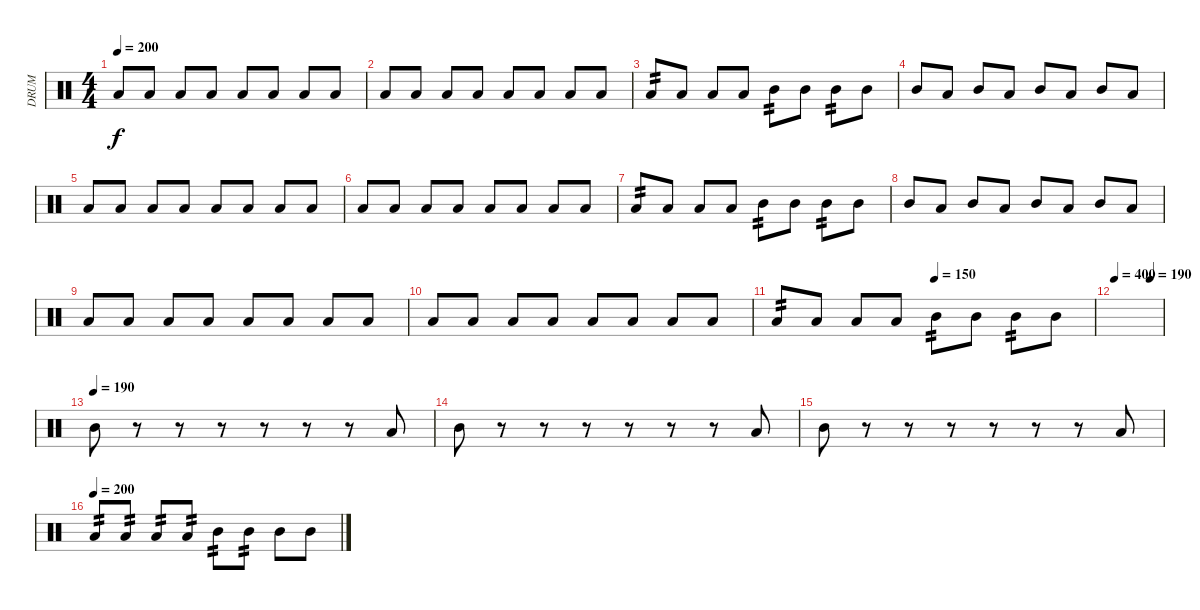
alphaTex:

\track ("DRUM" "DRUM") {instrument percussion}
\staff {score}
\articulation defaults
\ts (4 4)
\tempo 200
\clef neutral
\ks c "Low Tom (hit)".8{dy f} "Low Floor Tom (hit)".8 "Low Tom (hit)".8 "Low Floor Tom (hit)".8 "Low Tom (hit)".8 "Low Floor Tom (hit)".8 "Low Tom (hit)".8 "Low Floor Tom (hit)".8
|
"Low Tom (hit)".8 "Low Tom (hit)".8 "Low Tom (hit)".8 "Low Tom (hit)".8 "Low Tom (hit)".8 "Low Tom (hit)".8 "Low Tom (hit)".8 "Low Tom (hit)".8 |
"Low Tom (hit)".8{tp 2} "Low Tom (hit)".8 "Low Tom (hit)".8 "Low Tom (hit)".8 "Mid Tom (hit)".8{tp 2} "Mid Tom (hit)".8 "Mid Tom (hit)".8{tp 2} "Mid Tom (hit)".8 |
"Mid Tom (hit)".8 "Low Tom (hit)".8 "Mid Tom (hit)".8 "Low Tom (hit)".8 "Mid Tom (hit)".8 "Low Tom (hit)".8 "Mid Tom (hit)".8 "Low Tom (hit)".8 |
"Low Tom (hit)".8 "Low Floor Tom (hit)".8 "Low Tom (hit)".8 "Low Floor Tom (hit)".8 "Low Tom (hit)".8 "Low Floor Tom (hit)".8 "Low Tom (hit)".8 "Low Floor Tom (hit)".8 |
"Low Tom (hit)".8 "Low Tom (hit)".8 "Low Tom (hit)".8 "Low Tom (hit)".8 "Low Tom (hit)".8 "Low Tom (hit)".8 "Low Tom (hit)".8 "Low Tom (hit)".8 |
"Low Tom (hit)".8{tp 2} "Low Tom (hit)".8 "Low Tom (hit)".8 "Low Tom (hit)".8 "Mid Tom (hit)".8{tp 2} "Mid Tom (hit)".8 "Mid Tom (hit)".8{tp 2} "Mid Tom (hit)".8 |
"Mid Tom (hit)".8 "Low Tom (hit)".8 "Mid Tom (hit)".8 "Low Tom (hit)".8 "Mid Tom (hit)".8 "Low Tom (hit)".8 "Mid Tom (hit)".8 "Low Tom (hit)".8 |
"Low Tom (hit)".8 "Low Floor Tom (hit)".8 "Low Tom (hit)".8 "Low Floor Tom (hit)".8 "Low Tom (hit)".8 "Low Floor Tom (hit)".8 "Low Tom (hit)".8 "Low Floor Tom (hit)".8 |
"Low Tom (hit)".8 "Low Tom (hit)".8 "Low Tom (hit)".8 "Low Tom (hit)".8 "Low Tom (hit)".8 "Low Tom (hit)".8 "Low Tom (hit)".8 "Low Tom (hit)".8 |
\tempo (150 0.5)
"Low Tom (hit)".8{tp 2} "Low Tom (hit)".8 "Low Tom (hit)".8 "Low Tom (hit)".8 "Mid Tom (hit)".8{tp 2} "Mid Tom (hit)".8 "Mid Tom (hit)".8{tp 2} "Mid Tom (hit)".8 |
\tempo 400
\tempo (190 0.75)
|
\tempo (190)
"Mid Tom (hit)".8 r.8 r.8 r.8 r.8 r.8 r.8 "Low Floor Tom (hit)".8 |
"Mid Tom (hit)".8 r.8 r.8 r.8 r.8 r.8 r.8 "Low Floor Tom (hit)".8 |
"Mid Tom (hit)".8 r.8 r.8 r.8 r.8 r.8 r.8 "Low Floor Tom (hit)".8 |
\tempo (200)
"Low Tom (hit)".8{tp 2} "Low Tom (hit)".8{tp 2} "Low Tom (hit)".8{tp 2} "Low Tom (hit)".8{tp 2} "Mid Tom (hit)".8{tp 2} "Mid Tom (hit)".8{tp 2} "Mid Tom (hit)".8 "Mid Tom (hit)".8
